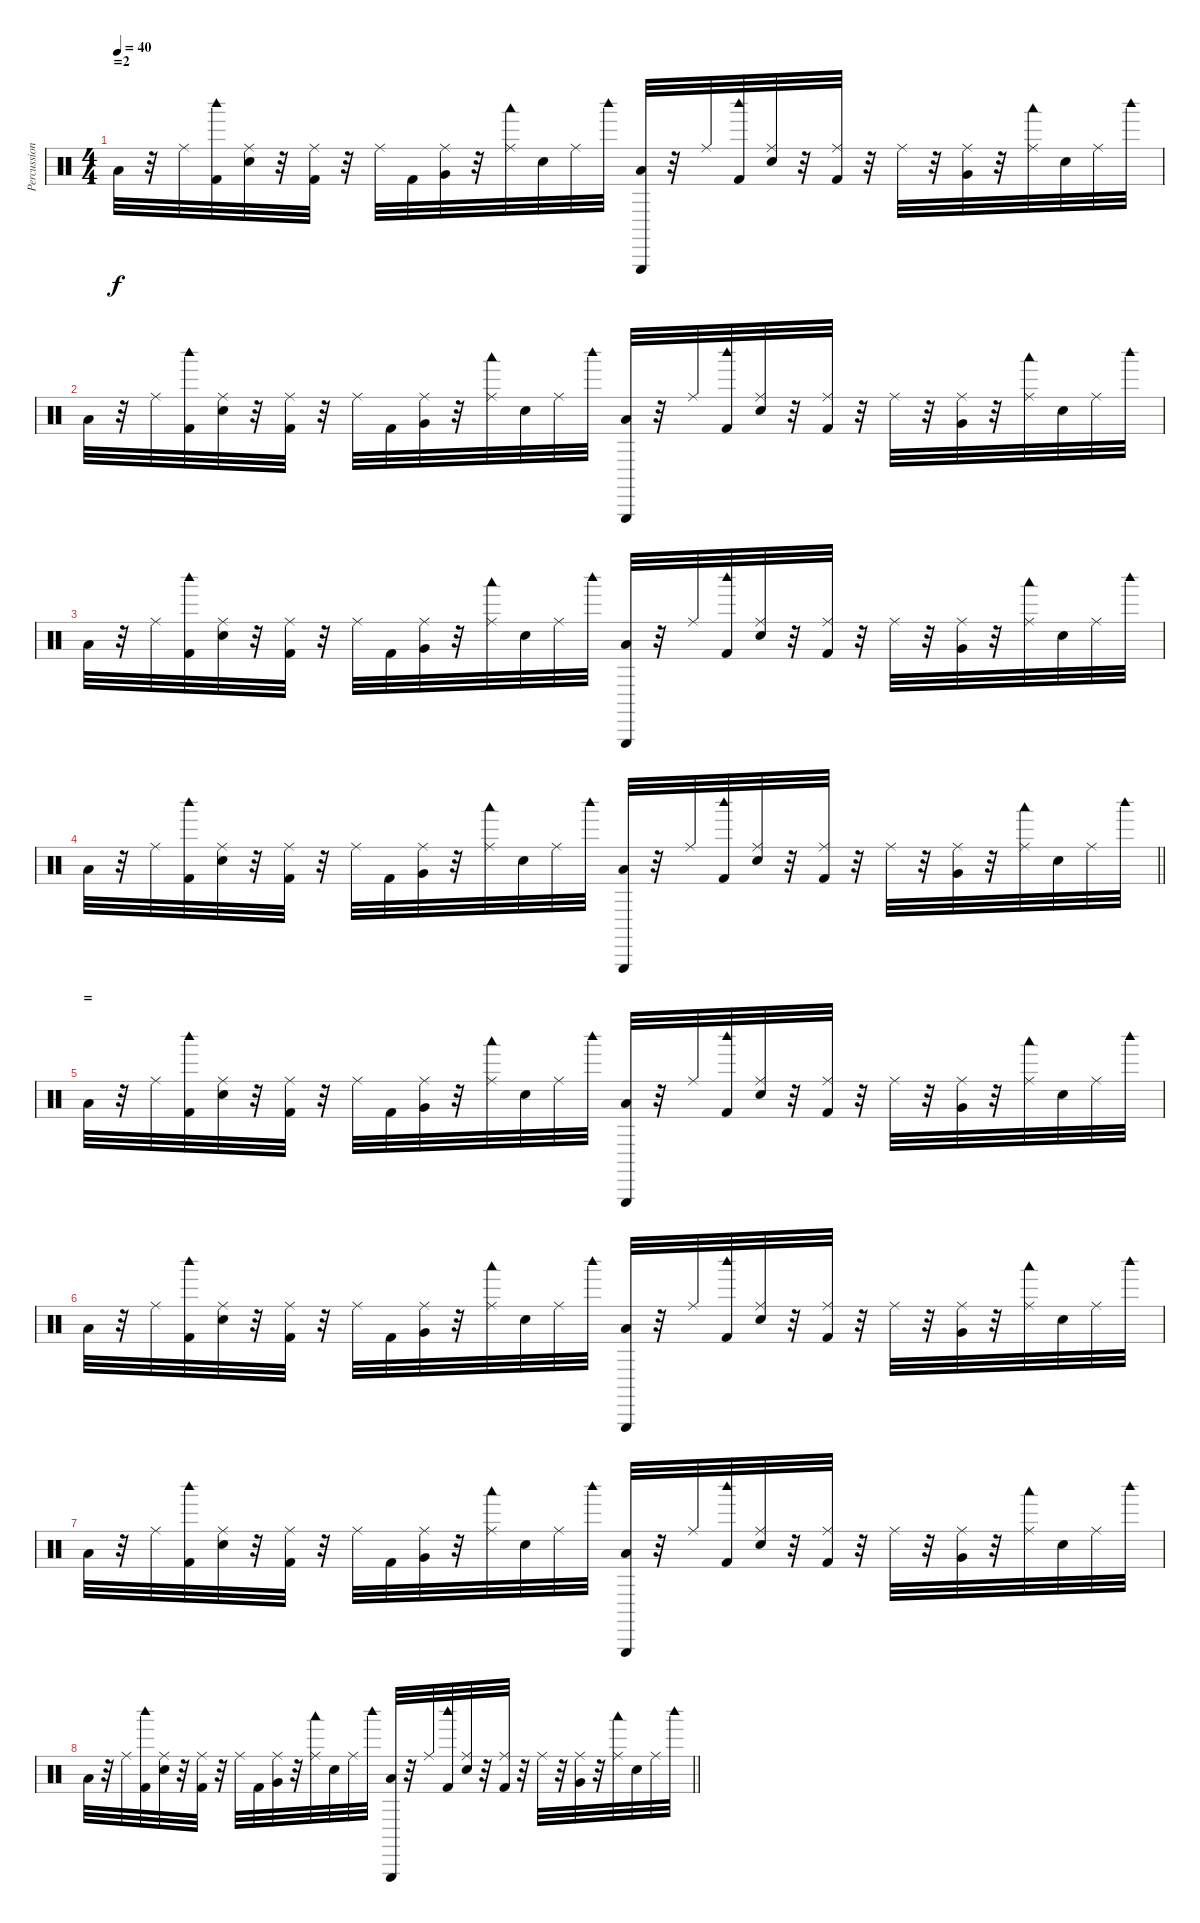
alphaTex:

\track ("Percussion" "Percussion") {instrument percussion}
\staff {score}
\articulation defaults
\ts (4 4)
\section ("" "=2")
\tempo 40
\clef neutral
\ks c "Low Floor Tom (hit)".32{dy f}
r.32 "Ride (middle)".32 ("Kick (hit) 2" "Woodblock high (hit)").32 ("Electric Snare (hit)" "Ride (middle)").32 r.32 ("Kick (hit) 2" "Ride (middle)").32 r.32 "Ride (middle)".32 "Kick (hit) 2".32 ("Very Low Tom (hit)" "Ride (middle)").32 r.32 ("Woodblock low (hit)" "Ride (middle)").32 "Electric Snare (hit)".32 "Ride (middle)".32 "Woodblock high (hit)".32 ("Low Floor Tom (hit)" "Triangle (hit)").32 r.32 "Ride (middle)".32 ("Kick (hit) 2" "Woodblock high (hit)").32 ("Electric Snare (hit)" "Ride (middle)").32 r.32 ("Kick (hit) 2" "Ride (middle)").32 r.32 "Ride (middle)".32 r.32 ("Very Low Tom (hit)" "Ride (middle)").32 r.32 ("Woodblock low (hit)" "Ride (middle)").32 "Electric Snare (hit)".32 "Ride (middle)".32 "Woodblock high (hit)".32 |
"Low Floor Tom (hit)".32 r.32 "Ride (middle)".32 ("Kick (hit) 2" "Woodblock high (hit)").32 ("Electric Snare (hit)" "Ride (middle)").32 r.32 ("Kick (hit) 2" "Ride (middle)").32 r.32 "Ride (middle)".32 "Kick (hit) 2".32 ("Very Low Tom (hit)" "Ride (middle)").32 r.32 ("Woodblock low (hit)" "Ride (middle)").32 "Electric Snare (hit)".32 "Ride (middle)".32 "Woodblock high (hit)".32 ("Low Floor Tom (hit)" "Triangle (hit)").32 r.32 "Ride (middle)".32 ("Kick (hit) 2" "Woodblock high (hit)").32 ("Electric Snare (hit)" "Ride (middle)").32 r.32 ("Kick (hit) 2" "Ride (middle)").32 r.32 "Ride (middle)".32 r.32 ("Very Low Tom (hit)" "Ride (middle)").32 r.32 ("Woodblock low (hit)" "Ride (middle)").32 "Electric Snare (hit)".32 "Ride (middle)".32 "Woodblock high (hit)".32 |
"Low Floor Tom (hit)".32 r.32 "Ride (middle)".32 ("Kick (hit) 2" "Woodblock high (hit)").32 ("Electric Snare (hit)" "Ride (middle)").32 r.32 ("Kick (hit) 2" "Ride (middle)").32 r.32 "Ride (middle)".32 "Kick (hit) 2".32 ("Very Low Tom (hit)" "Ride (middle)").32 r.32 ("Woodblock low (hit)" "Ride (middle)").32 "Electric Snare (hit)".32 "Ride (middle)".32 "Woodblock high (hit)".32 ("Low Floor Tom (hit)" "Triangle (hit)").32 r.32 "Ride (middle)".32 ("Kick (hit) 2" "Woodblock high (hit)").32 ("Electric Snare (hit)" "Ride (middle)").32 r.32 ("Kick (hit) 2" "Ride (middle)").32 r.32 "Ride (middle)".32 r.32 ("Very Low Tom (hit)" "Ride (middle)").32 r.32 ("Woodblock low (hit)" "Ride (middle)").32 "Electric Snare (hit)".32 "Ride (middle)".32 "Woodblock high (hit)".32 |
\barLineRight lightlight "Low Floor Tom (hit)".32
r.32 "Ride (middle)".32 ("Kick (hit) 2" "Woodblock high (hit)").32 ("Electric Snare (hit)" "Ride (middle)").32 r.32 ("Kick (hit) 2" "Ride (middle)").32 r.32 "Ride (middle)".32 "Kick (hit) 2".32 ("Very Low Tom (hit)" "Ride (middle)").32 r.32 ("Woodblock low (hit)" "Ride (middle)").32 "Electric Snare (hit)".32 "Ride (middle)".32 "Woodblock high (hit)".32 ("Low Floor Tom (hit)" "Triangle (hit)").32 r.32 "Ride (middle)".32 ("Kick (hit) 2" "Woodblock high (hit)").32 ("Electric Snare (hit)" "Ride (middle)").32 r.32 ("Kick (hit) 2" "Ride (middle)").32 r.32 "Ride (middle)".32 r.32 ("Very Low Tom (hit)" "Ride (middle)").32 r.32 ("Woodblock low (hit)" "Ride (middle)").32 "Electric Snare (hit)".32 "Ride (middle)".32 "Woodblock high (hit)".32 |
\section ("" "=")
"Low Floor Tom (hit)".32 r.32 "Ride (middle)".32 ("Kick (hit) 2" "Woodblock high (hit)").32 ("Electric Snare (hit)" "Ride (middle)").32 r.32 ("Kick (hit) 2" "Ride (middle)").32 r.32 "Ride (middle)".32 "Kick (hit) 2".32 ("Very Low Tom (hit)" "Ride (middle)").32 r.32 ("Woodblock low (hit)" "Ride (middle)").32 "Electric Snare (hit)".32 "Ride (middle)".32 "Woodblock high (hit)".32 ("Low Floor Tom (hit)" "Triangle (hit)").32 r.32 "Ride (middle)".32 ("Kick (hit) 2" "Woodblock high (hit)").32 ("Electric Snare (hit)" "Ride (middle)").32 r.32 ("Kick (hit) 2" "Ride (middle)").32 r.32 "Ride (middle)".32 r.32 ("Very Low Tom (hit)" "Ride (middle)").32 r.32 ("Woodblock low (hit)" "Ride (middle)").32 "Electric Snare (hit)".32 "Ride (middle)".32 "Woodblock high (hit)".32 |
"Low Floor Tom (hit)".32 r.32 "Ride (middle)".32 ("Kick (hit) 2" "Woodblock high (hit)").32 ("Electric Snare (hit)" "Ride (middle)").32 r.32 ("Kick (hit) 2" "Ride (middle)").32 r.32 "Ride (middle)".32 "Kick (hit) 2".32 ("Very Low Tom (hit)" "Ride (middle)").32 r.32 ("Woodblock low (hit)" "Ride (middle)").32 "Electric Snare (hit)".32 "Ride (middle)".32 "Woodblock high (hit)".32 ("Low Floor Tom (hit)" "Triangle (hit)").32 r.32 "Ride (middle)".32 ("Kick (hit) 2" "Woodblock high (hit)").32 ("Electric Snare (hit)" "Ride (middle)").32 r.32 ("Kick (hit) 2" "Ride (middle)").32 r.32 "Ride (middle)".32 r.32 ("Very Low Tom (hit)" "Ride (middle)").32 r.32 ("Woodblock low (hit)" "Ride (middle)").32 "Electric Snare (hit)".32 "Ride (middle)".32 "Woodblock high (hit)".32 |
"Low Floor Tom (hit)".32 r.32 "Ride (middle)".32 ("Kick (hit) 2" "Woodblock high (hit)").32 ("Electric Snare (hit)" "Ride (middle)").32 r.32 ("Kick (hit) 2" "Ride (middle)").32 r.32 "Ride (middle)".32 "Kick (hit) 2".32 ("Very Low Tom (hit)" "Ride (middle)").32 r.32 ("Woodblock low (hit)" "Ride (middle)").32 "Electric Snare (hit)".32 "Ride (middle)".32 "Woodblock high (hit)".32 ("Low Floor Tom (hit)" "Triangle (hit)").32 r.32 "Ride (middle)".32 ("Kick (hit) 2" "Woodblock high (hit)").32 ("Electric Snare (hit)" "Ride (middle)").32 r.32 ("Kick (hit) 2" "Ride (middle)").32 r.32 "Ride (middle)".32 r.32 ("Very Low Tom (hit)" "Ride (middle)").32 r.32 ("Woodblock low (hit)" "Ride (middle)").32 "Electric Snare (hit)".32 "Ride (middle)".32 "Woodblock high (hit)".32 |
\barLineRight lightlight "Low Floor Tom (hit)".32
r.32 "Ride (middle)".32 ("Kick (hit) 2" "Woodblock high (hit)").32 ("Electric Snare (hit)" "Ride (middle)").32 r.32 ("Kick (hit) 2" "Ride (middle)").32 r.32 "Ride (middle)".32 "Kick (hit) 2".32 ("Very Low Tom (hit)" "Ride (middle)").32 r.32 ("Woodblock low (hit)" "Ride (middle)").32 "Electric Snare (hit)".32 "Ride (middle)".32 "Woodblock high (hit)".32 ("Low Floor Tom (hit)" "Triangle (hit)").32 r.32 "Ride (middle)".32 ("Kick (hit) 2" "Woodblock high (hit)").32 ("Electric Snare (hit)" "Ride (middle)").32 r.32 ("Kick (hit) 2" "Ride (middle)").32 r.32 "Ride (middle)".32 r.32 ("Very Low Tom (hit)" "Ride (middle)").32 r.32 ("Woodblock low (hit)" "Ride (middle)").32 "Electric Snare (hit)".32 "Ride (middle)".32 "Woodblock high (hit)".32
